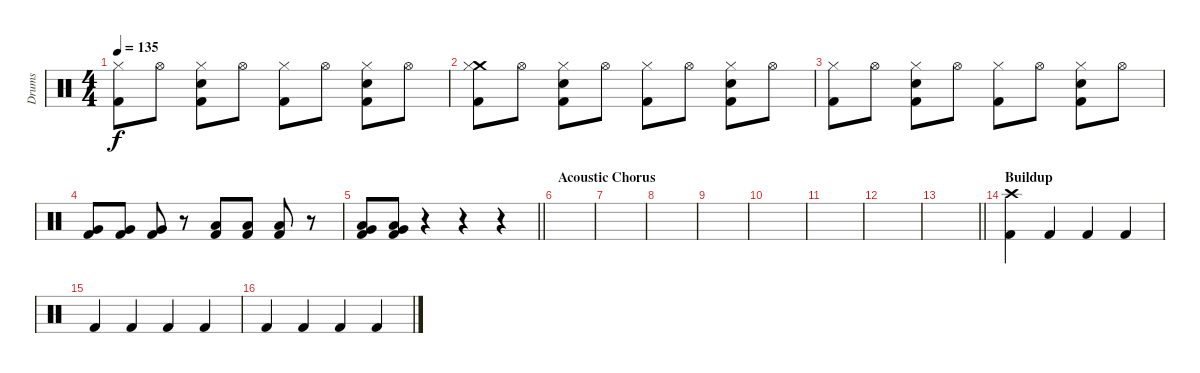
\track ("Drums" "Drums") {instrument percussion}
\staff {score}
\articulation defaults
\ts (4 4)
\tempo 135
\clef neutral
\ks c
("Hi-Hat (closed)" "Kick (hit) 2").8{dy f} "Hi-Hat (open)".8 ("Hi-Hat (closed)" "Snare (hit) 2" "Kick (hit) 2").8 "Hi-Hat (open)".8 ("Hi-Hat (closed)" "Kick (hit) 2").8 "Hi-Hat (open)".8 ("Hi-Hat (closed)" "Snare (hit) 2" "Kick (hit) 2").8 "Hi-Hat (open)".8 |
("Crash medium (hit)" "Hi-Hat (closed)" "Kick (hit) 2").8 "Hi-Hat (open)".8 ("Hi-Hat (closed)" "Snare (hit) 2" "Kick (hit) 2").8 "Hi-Hat (open)".8 ("Hi-Hat (closed)" "Kick (hit) 2").8 "Hi-Hat (open)".8 ("Hi-Hat (closed)" "Snare (hit) 2" "Kick (hit) 2").8 "Hi-Hat (open)".8 |
("Hi-Hat (closed)" "Kick (hit) 2").8 "Hi-Hat (open)".8 ("Hi-Hat (closed)" "Snare (hit) 2" "Kick (hit) 2").8 "Hi-Hat (open)".8 ("Hi-Hat (closed)" "Kick (hit) 2").8 "Hi-Hat (open)".8 ("Hi-Hat (closed)" "Snare (hit) 2" "Kick (hit) 2").8 "Hi-Hat (open)".8 |
("Very Low Tom (hit)" "Kick (hit) 2").8 ("Very Low Tom (hit)" "Kick (hit) 2").8 ("Very Low Tom (hit)" "Kick (hit) 2").8 r.8 ("Low Floor Tom (hit)" "Kick (hit) 2").8 ("Low Floor Tom (hit)" "Kick (hit) 2").8 ("Low Floor Tom (hit)" "Kick (hit) 2").8 r.8 |
\barLineRight lightlight
("Very Low Tom (hit)" "Low Floor Tom (hit)" "Kick (hit) 2").8 ("Very Low Tom (hit)" "Low Floor Tom (hit)" "Kick (hit) 2").8 r.4 r.4 r.4 |
\section ("" "Acoustic Chorus")
|
|
|
|
|
|
|
\barLineRight lightlight
|
\section ("" "Buildup")
("Crash high (hit)" "Kick (hit) 2").4 "Kick (hit) 2".4 "Kick (hit) 2".4 "Kick (hit) 2".4 |
"Kick (hit) 2".4 "Kick (hit) 2".4 "Kick (hit) 2".4 "Kick (hit) 2".4 |
"Kick (hit) 2".4 "Kick (hit) 2".4 "Kick (hit) 2".4 "Kick (hit) 2".4
